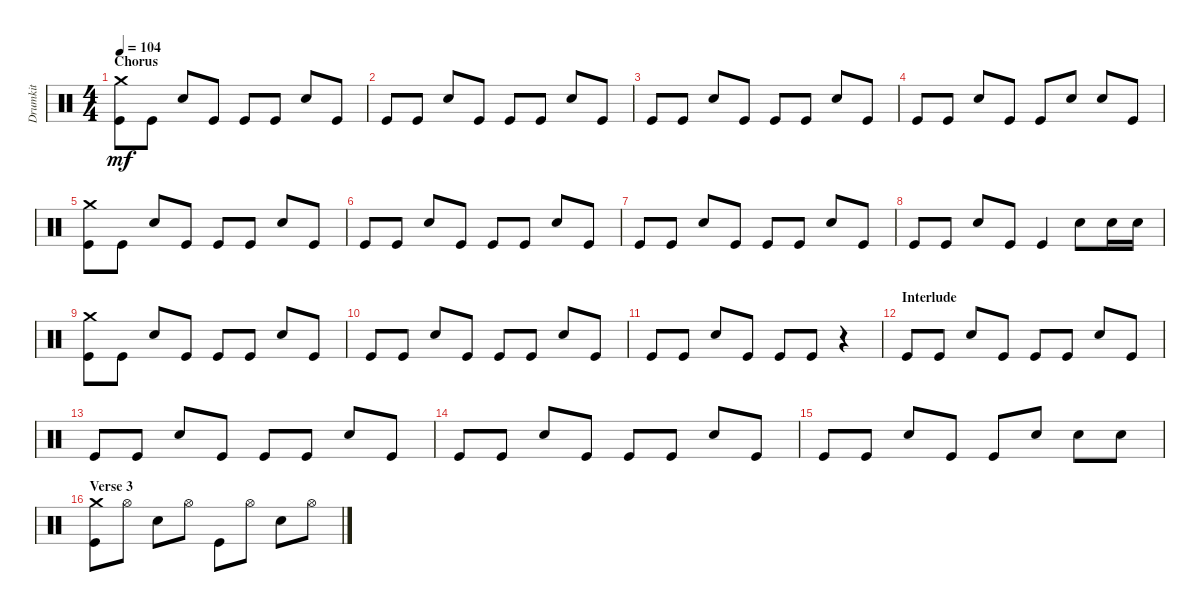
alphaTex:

\track ("Drumkit" "Drumkit") {instrument percussion}
\staff {score}
\articulation defaults
\ts (4 4)
\section ("" "Chorus")
\tempo 104
\clef neutral
\ks c
("Crash medium (hit)" "Kick (hit)").8{dy mf} "Kick (hit)".8 "Snare (hit) 2".8 "Kick (hit)".8 "Kick (hit)".8 "Kick (hit)".8 "Snare (hit) 2".8 "Kick (hit)".8 |
"Kick (hit)".8 "Kick (hit)".8 "Snare (hit) 2".8 "Kick (hit)".8 "Kick (hit)".8 "Kick (hit)".8 "Snare (hit) 2".8 "Kick (hit)".8 |
"Kick (hit)".8 "Kick (hit)".8 "Snare (hit) 2".8 "Kick (hit)".8 "Kick (hit)".8 "Kick (hit)".8 "Snare (hit) 2".8 "Kick (hit)".8 |
"Kick (hit)".8 "Kick (hit)".8 "Snare (hit) 2".8 "Kick (hit)".8 "Kick (hit)".8 "Snare (hit) 2".8 "Snare (hit) 2".8 "Kick (hit)".8 |
("Crash medium (hit)" "Kick (hit)").8 "Kick (hit)".8 "Snare (hit) 2".8 "Kick (hit)".8 "Kick (hit)".8 "Kick (hit)".8 "Snare (hit) 2".8 "Kick (hit)".8 |
"Kick (hit)".8 "Kick (hit)".8 "Snare (hit) 2".8 "Kick (hit)".8 "Kick (hit)".8 "Kick (hit)".8 "Snare (hit) 2".8 "Kick (hit)".8 |
"Kick (hit)".8 "Kick (hit)".8 "Snare (hit) 2".8 "Kick (hit)".8 "Kick (hit)".8 "Kick (hit)".8 "Snare (hit) 2".8 "Kick (hit)".8 |
"Kick (hit)".8 "Kick (hit)".8 "Snare (hit) 2".8 "Kick (hit)".8 "Kick (hit)".4 "Snare (hit) 2".8 "Snare (hit) 2".16 "Snare (hit) 2".16 |
("Crash medium (hit)" "Kick (hit)").8 "Kick (hit)".8 "Snare (hit) 2".8 "Kick (hit)".8 "Kick (hit)".8 "Kick (hit)".8 "Snare (hit) 2".8 "Kick (hit)".8 |
"Kick (hit)".8 "Kick (hit)".8 "Snare (hit) 2".8 "Kick (hit)".8 "Kick (hit)".8 "Kick (hit)".8 "Snare (hit) 2".8 "Kick (hit)".8 |
"Kick (hit)".8 "Kick (hit)".8 "Snare (hit) 2".8 "Kick (hit)".8 "Kick (hit)".8 "Kick (hit)".8 r.4 |
\section ("" "Interlude")
"Kick (hit)".8 "Kick (hit)".8 "Snare (hit) 2".8 "Kick (hit)".8 "Kick (hit)".8 "Kick (hit)".8 "Snare (hit) 2".8 "Kick (hit)".8 |
"Kick (hit)".8 "Kick (hit)".8 "Snare (hit) 2".8 "Kick (hit)".8 "Kick (hit)".8 "Kick (hit)".8 "Snare (hit) 2".8 "Kick (hit)".8 |
"Kick (hit)".8 "Kick (hit)".8 "Snare (hit) 2".8 "Kick (hit)".8 "Kick (hit)".8 "Kick (hit)".8 "Snare (hit) 2".8 "Kick (hit)".8 |
"Kick (hit)".8 "Kick (hit)".8 "Snare (hit) 2".8 "Kick (hit)".8 "Kick (hit)".8 "Snare (hit) 2".8 "Snare (hit) 2".8 "Snare (hit) 2".8 |
\section ("" "Verse 3")
("Kick (hit)" "Crash medium (hit)").8 "Hi-Hat (open)".8 "Snare (hit) 2".8 "Hi-Hat (open)".8 "Kick (hit)".8 "Hi-Hat (open)".8 "Snare (hit) 2".8 "Hi-Hat (open)".8
